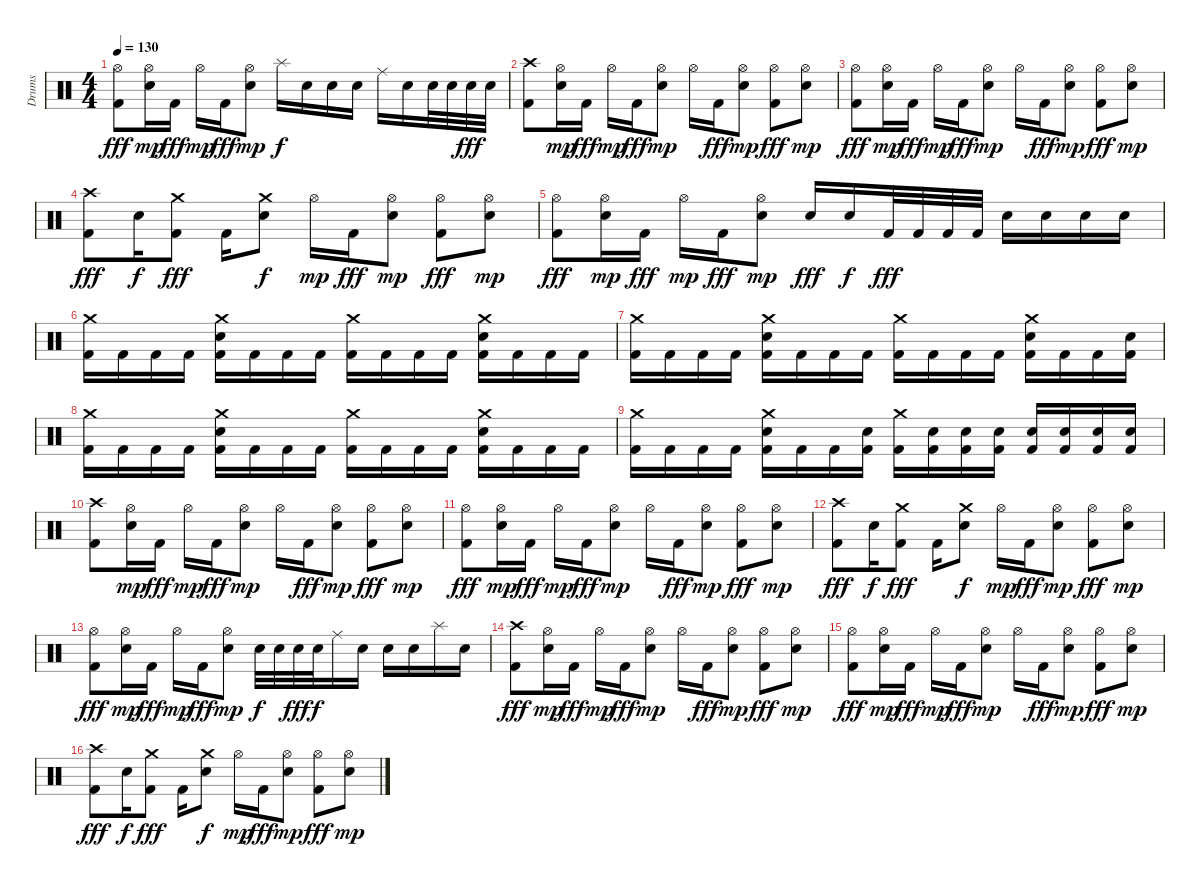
\track ("Drums" "Drums") {instrument percussion}
\staff {score}
\articulation defaults
\ts (4 4)
\tempo 130
\clef neutral
\ks c
("Hi-Hat (open)" "Kick (hit) 2").8{dy fff} ("Hi-Hat (open)" "Electric Snare (hit)").16{dy mp} "Kick (hit) 2".16{dy fff} "Hi-Hat (open)".16{dy mp} "Kick (hit) 2".16{dy fff} ("Hi-Hat (open)" "Electric Snare (hit)").8{dy mp} "Splash (hit)".16{dy f} "Electric Snare (hit)".16 "Electric Snare (hit)".16 "Electric Snare (hit)".16 "Ride (middle)".16 "Electric Snare (hit)".16 "Electric Snare (hit)".32 "Electric Snare (hit)".32 "Electric Snare (hit)".32{dy fff} "Electric Snare (hit)".32 |
("Crash high (hit)" "Kick (hit) 2").8 ("Hi-Hat (open)" "Electric Snare (hit)").16{dy mp} "Kick (hit) 2".16{dy fff} "Hi-Hat (open)".16{dy mp} "Kick (hit) 2".16{dy fff} ("Hi-Hat (open)" "Electric Snare (hit)").8{dy mp} "Hi-Hat (open)".16 "Kick (hit) 2".16{dy fff} ("Hi-Hat (open)" "Electric Snare (hit)").8{dy mp} ("Hi-Hat (open)" "Kick (hit) 2").8{dy fff} ("Hi-Hat (open)" "Electric Snare (hit)").8{dy mp} |
("Hi-Hat (open)" "Kick (hit) 2").8{dy fff} ("Hi-Hat (open)" "Electric Snare (hit)").16{dy mp} "Kick (hit) 2".16{dy fff} "Hi-Hat (open)".16{dy mp} "Kick (hit) 2".16{dy fff} ("Hi-Hat (open)" "Electric Snare (hit)").8{dy mp} "Hi-Hat (open)".16 "Kick (hit) 2".16{dy fff} ("Hi-Hat (open)" "Electric Snare (hit)").8{dy mp} ("Hi-Hat (open)" "Kick (hit) 2").8{dy fff} ("Hi-Hat (open)" "Electric Snare (hit)").8{dy mp} |
("Crash high (hit)" "Kick (hit) 2").8{dy fff} "Electric Snare (hit)".16{dy f} ("Crash medium (hit)" "Kick (hit) 2").8{dy fff} "Kick (hit) 2".16 ("Crash medium (hit)" "Electric Snare (hit)").8{dy f} "Hi-Hat (open)".16{dy mp} "Kick (hit) 2".16{dy fff} ("Hi-Hat (open)" "Electric Snare (hit)").8{dy mp} ("Hi-Hat (open)" "Kick (hit) 2").8{dy fff} ("Hi-Hat (open)" "Electric Snare (hit)").8{dy mp} |
("Hi-Hat (open)" "Kick (hit) 2").8{dy fff} ("Hi-Hat (open)" "Electric Snare (hit)").16{dy mp} "Kick (hit) 2".16{dy fff} "Hi-Hat (open)".16{dy mp} "Kick (hit) 2".16{dy fff} ("Hi-Hat (open)" "Electric Snare (hit)").8{dy mp} "Electric Snare (hit)".16{dy fff} "Electric Snare (hit)".16{dy f} "Kick (hit) 2".32{dy fff} "Kick (hit) 2".32 "Kick (hit) 2".32 "Kick (hit) 2".32 "Electric Snare (hit)".16 "Electric Snare (hit)".16 "Electric Snare (hit)".16 "Electric Snare (hit)".16 |
("Crash medium (hit)" "Kick (hit) 2").16 "Kick (hit) 2".16 "Kick (hit) 2".16 "Kick (hit) 2".16 ("Crash medium (hit)" "Electric Snare (hit)" "Kick (hit) 2").16 "Kick (hit) 2".16 "Kick (hit) 2".16 "Kick (hit) 2".16 ("Crash medium (hit)" "Kick (hit) 2").16 "Kick (hit) 2".16 "Kick (hit) 2".16 "Kick (hit) 2".16 ("Crash medium (hit)" "Electric Snare (hit)" "Kick (hit) 2").16 "Kick (hit) 2".16 "Kick (hit) 2".16 "Kick (hit) 2".16 |
("Crash medium (hit)" "Kick (hit) 2").16 "Kick (hit) 2".16 "Kick (hit) 2".16 "Kick (hit) 2".16 ("Crash medium (hit)" "Electric Snare (hit)" "Kick (hit) 2").16 "Kick (hit) 2".16 "Kick (hit) 2".16 "Kick (hit) 2".16 ("Crash medium (hit)" "Kick (hit) 2").16 "Kick (hit) 2".16 "Kick (hit) 2".16 "Kick (hit) 2".16 ("Crash medium (hit)" "Electric Snare (hit)" "Kick (hit) 2").16 "Kick (hit) 2".16 "Kick (hit) 2".16 ("Electric Snare (hit)" "Kick (hit) 2").16 |
("Crash medium (hit)" "Kick (hit) 2").16 "Kick (hit) 2".16 "Kick (hit) 2".16 "Kick (hit) 2".16 ("Crash medium (hit)" "Electric Snare (hit)" "Kick (hit) 2").16 "Kick (hit) 2".16 "Kick (hit) 2".16 "Kick (hit) 2".16 ("Crash medium (hit)" "Kick (hit) 2").16 "Kick (hit) 2".16 "Kick (hit) 2".16 "Kick (hit) 2".16 ("Crash medium (hit)" "Electric Snare (hit)" "Kick (hit) 2").16 "Kick (hit) 2".16 "Kick (hit) 2".16 "Kick (hit) 2".16 |
("Crash medium (hit)" "Kick (hit) 2").16 "Kick (hit) 2".16 "Kick (hit) 2".16 "Kick (hit) 2".16 ("Crash medium (hit)" "Electric Snare (hit)" "Kick (hit) 2").16 "Kick (hit) 2".16 "Kick (hit) 2".16 ("Electric Snare (hit)" "Kick (hit) 2").16 ("Crash medium (hit)" "Kick (hit) 2").16 ("Electric Snare (hit)" "Kick (hit) 2").16 ("Electric Snare (hit)" "Kick (hit) 2").16 ("Electric Snare (hit)" "Kick (hit) 2").16 ("Electric Snare (hit)" "Kick (hit) 2").16 ("Electric Snare (hit)" "Kick (hit) 2").16 ("Electric Snare (hit)" "Kick (hit) 2").16 ("Electric Snare (hit)" "Kick (hit) 2").16 |
("Crash high (hit)" "Kick (hit) 2").8 ("Hi-Hat (open)" "Electric Snare (hit)").16{dy mp} "Kick (hit) 2".16{dy fff} "Hi-Hat (open)".16{dy mp} "Kick (hit) 2".16{dy fff} ("Hi-Hat (open)" "Electric Snare (hit)").8{dy mp} "Hi-Hat (open)".16 "Kick (hit) 2".16{dy fff} ("Hi-Hat (open)" "Electric Snare (hit)").8{dy mp} ("Hi-Hat (open)" "Kick (hit) 2").8{dy fff} ("Hi-Hat (open)" "Electric Snare (hit)").8{dy mp} |
("Hi-Hat (open)" "Kick (hit) 2").8{dy fff} ("Hi-Hat (open)" "Electric Snare (hit)").16{dy mp} "Kick (hit) 2".16{dy fff} "Hi-Hat (open)".16{dy mp} "Kick (hit) 2".16{dy fff} ("Hi-Hat (open)" "Electric Snare (hit)").8{dy mp} "Hi-Hat (open)".16 "Kick (hit) 2".16{dy fff} ("Hi-Hat (open)" "Electric Snare (hit)").8{dy mp} ("Hi-Hat (open)" "Kick (hit) 2").8{dy fff} ("Hi-Hat (open)" "Electric Snare (hit)").8{dy mp} |
("Crash high (hit)" "Kick (hit) 2").8{dy fff} "Electric Snare (hit)".16{dy f} ("Crash medium (hit)" "Kick (hit) 2").8{dy fff} "Kick (hit) 2".16 ("Crash medium (hit)" "Electric Snare (hit)").8{dy f} "Hi-Hat (open)".16{dy mp} "Kick (hit) 2".16{dy fff} ("Hi-Hat (open)" "Electric Snare (hit)").8{dy mp} ("Hi-Hat (open)" "Kick (hit) 2").8{dy fff} ("Hi-Hat (open)" "Electric Snare (hit)").8{dy mp} |
("Hi-Hat (open)" "Kick (hit) 2").8{dy fff} ("Hi-Hat (open)" "Electric Snare (hit)").16{dy mp} "Kick (hit) 2".16{dy fff} "Hi-Hat (open)".16{dy mp} "Kick (hit) 2".16{dy fff} ("Hi-Hat (open)" "Electric Snare (hit)").8{dy mp} "Electric Snare (hit)".32{dy f} "Electric Snare (hit)".32 "Electric Snare (hit)".32{dy fff} "Electric Snare (hit)".32{dy f} "Ride (middle)".16 "Electric Snare (hit)".16 "Electric Snare (hit)".16 "Electric Snare (hit)".16 "Splash (hit)".16 "Electric Snare (hit)".16 |
("Crash high (hit)" "Kick (hit) 2").8{dy fff} ("Hi-Hat (open)" "Electric Snare (hit)").16{dy mp} "Kick (hit) 2".16{dy fff} "Hi-Hat (open)".16{dy mp} "Kick (hit) 2".16{dy fff} ("Hi-Hat (open)" "Electric Snare (hit)").8{dy mp} "Hi-Hat (open)".16 "Kick (hit) 2".16{dy fff} ("Hi-Hat (open)" "Electric Snare (hit)").8{dy mp} ("Hi-Hat (open)" "Kick (hit) 2").8{dy fff} ("Hi-Hat (open)" "Electric Snare (hit)").8{dy mp} |
("Hi-Hat (open)" "Kick (hit) 2").8{dy fff} ("Hi-Hat (open)" "Electric Snare (hit)").16{dy mp} "Kick (hit) 2".16{dy fff} "Hi-Hat (open)".16{dy mp} "Kick (hit) 2".16{dy fff} ("Hi-Hat (open)" "Electric Snare (hit)").8{dy mp} "Hi-Hat (open)".16 "Kick (hit) 2".16{dy fff} ("Hi-Hat (open)" "Electric Snare (hit)").8{dy mp} ("Hi-Hat (open)" "Kick (hit) 2").8{dy fff} ("Hi-Hat (open)" "Electric Snare (hit)").8{dy mp} |
("Crash high (hit)" "Kick (hit) 2").8{dy fff} "Electric Snare (hit)".16{dy f} ("Crash medium (hit)" "Kick (hit) 2").8{dy fff} "Kick (hit) 2".16 ("Crash medium (hit)" "Electric Snare (hit)").8{dy f} "Hi-Hat (open)".16{dy mp} "Kick (hit) 2".16{dy fff} ("Hi-Hat (open)" "Electric Snare (hit)").8{dy mp} ("Hi-Hat (open)" "Kick (hit) 2").8{dy fff} ("Hi-Hat (open)" "Electric Snare (hit)").8{dy mp}
